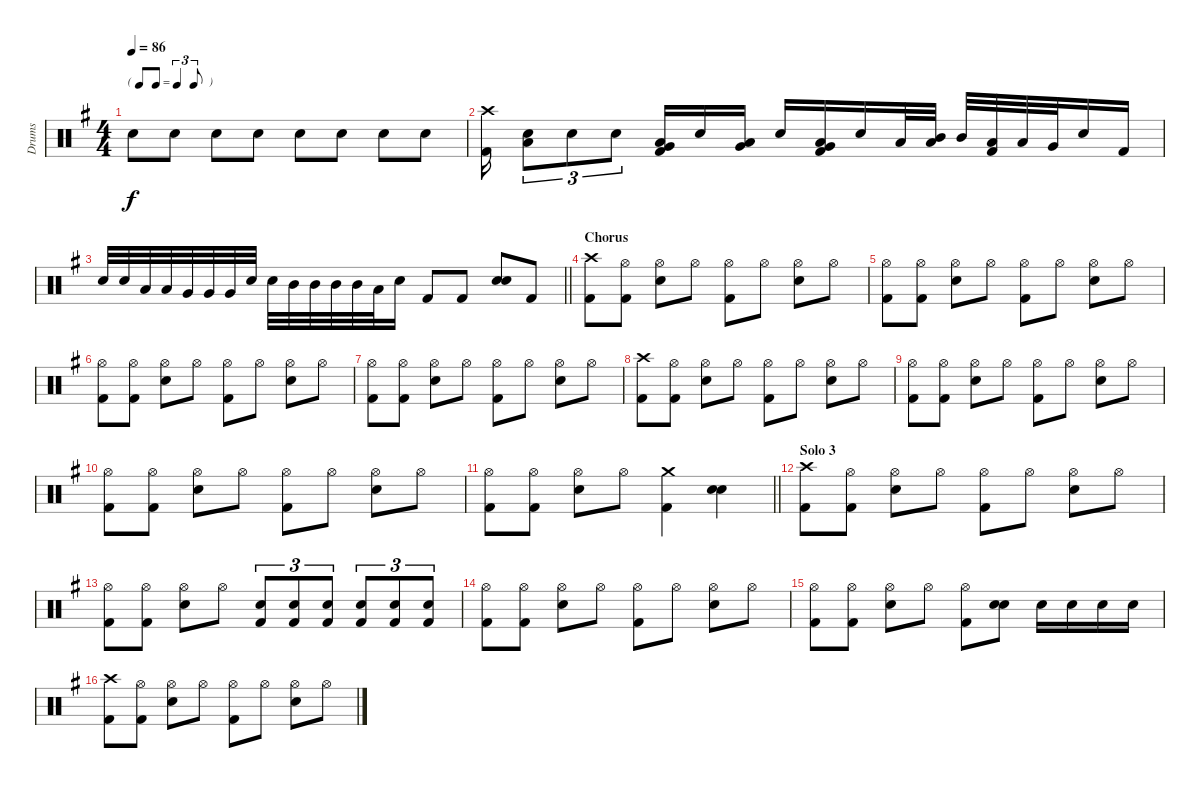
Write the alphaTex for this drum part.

\track ("Drums" "Drums") {instrument percussion}
\staff {score}
\articulation defaults
\ts (4 4)
\tf triplet8th
\tempo 86
\clef neutral
\ks g "Snare (hit) 2".8{dy f} "Snare (hit) 2".8 "Snare (hit) 2".8 "Snare (hit) 2".8 "Snare (hit) 2".8 "Snare (hit) 2".8 "Snare (hit) 2".8 "Snare (hit) 2".8
|
("Crash high (hit)" "Kick (hit) 2").16 ("Snare (hit) 2" "Low Tom (hit)").8{tu (3 2)} "Snare (hit) 2".8{tu (3 2)} "Snare (hit) 2".8{tu (3 2)} ("Kick (hit) 2" "Low Tom (hit)" "Very Low Tom (hit)").16 "Snare (hit) 2".16 ("Low Tom (hit)" "Very Low Tom (hit)").16 "Snare (hit) 2".16 ("Kick (hit) 2" "Low Tom (hit)" "Very Low Tom (hit)").16 "Snare (hit) 2".16 "Low Tom (hit)".32 ("Mid Tom (hit)" "Low Tom (hit)").32 "Mid Tom (hit)".32 ("Kick (hit) 2" "Low Tom (hit)").32 "Low Tom (hit)".32 "Very Low Tom (hit)".32 "Snare (hit) 2".16 "Kick (hit) 2".16 |
\barLineRight lightlight "Snare (hit) 2".32 "Snare (hit) 2".32 "Low Tom (hit)".32 "Low Tom (hit)".32 "Very Low Tom (hit)".32 "Very Low Tom (hit)".32 "Very Low Tom (hit)".32 "Snare (hit) 2".32 "Snare (hit) 2".32 "Mid Tom (hit)".32 "Mid Tom (hit)".32 "Mid Tom (hit)".32 "Mid Tom (hit)".32 "Low Tom (hit)".32 "Snare (hit) 2".16 "Kick (hit) 2".8 "Kick (hit) 2".8
("Snare (hit) 2" "Snare (hit) 2").8 "Kick (hit) 2".8 |
\section ("" "Chorus")
("Crash high (hit)" "Kick (hit) 2").8 ("Hi-Hat (open)" "Kick (hit) 2").8 ("Hi-Hat (open)" "Snare (hit) 2").8 "Hi-Hat (open)".8 ("Hi-Hat (open)" "Kick (hit) 2").8 "Hi-Hat (open)".8 ("Hi-Hat (open)" "Snare (hit) 2").8 "Hi-Hat (open)".8 |
("Hi-Hat (open)" "Kick (hit) 2").8 ("Hi-Hat (open)" "Kick (hit) 2").8 ("Hi-Hat (open)" "Snare (hit) 2").8 "Hi-Hat (open)".8 ("Hi-Hat (open)" "Kick (hit) 2").8 "Hi-Hat (open)".8 ("Hi-Hat (open)" "Snare (hit) 2").8 "Hi-Hat (open)".8 |
("Hi-Hat (open)" "Kick (hit) 2").8 ("Hi-Hat (open)" "Kick (hit) 2").8 ("Hi-Hat (open)" "Snare (hit) 2").8 "Hi-Hat (open)".8 ("Hi-Hat (open)" "Kick (hit) 2").8 "Hi-Hat (open)".8 ("Hi-Hat (open)" "Snare (hit) 2").8 "Hi-Hat (open)".8 |
("Hi-Hat (open)" "Kick (hit) 2").8 ("Hi-Hat (open)" "Kick (hit) 2").8 ("Hi-Hat (open)" "Snare (hit) 2").8 "Hi-Hat (open)".8 ("Hi-Hat (open)" "Kick (hit) 2").8 "Hi-Hat (open)".8 ("Hi-Hat (open)" "Snare (hit) 2").8 "Hi-Hat (open)".8 |
("Crash high (hit)" "Kick (hit) 2").8 ("Hi-Hat (open)" "Kick (hit) 2").8 ("Hi-Hat (open)" "Snare (hit) 2").8 "Hi-Hat (open)".8 ("Hi-Hat (open)" "Kick (hit) 2").8 "Hi-Hat (open)".8 ("Hi-Hat (open)" "Snare (hit) 2").8 "Hi-Hat (open)".8 |
("Hi-Hat (open)" "Kick (hit) 2").8 ("Hi-Hat (open)" "Kick (hit) 2").8 ("Hi-Hat (open)" "Snare (hit) 2").8 "Hi-Hat (open)".8 ("Hi-Hat (open)" "Kick (hit) 2").8 "Hi-Hat (open)".8 ("Hi-Hat (open)" "Snare (hit) 2").8 "Hi-Hat (open)".8 |
("Hi-Hat (open)" "Kick (hit) 2").8 ("Hi-Hat (open)" "Kick (hit) 2").8 ("Hi-Hat (open)" "Snare (hit) 2").8 "Hi-Hat (open)".8 ("Hi-Hat (open)" "Kick (hit) 2").8 "Hi-Hat (open)".8 ("Hi-Hat (open)" "Snare (hit) 2").8 "Hi-Hat (open)".8 |
\barLineRight lightlight
("Hi-Hat (open)" "Kick (hit) 2").8 ("Hi-Hat (open)" "Kick (hit) 2").8 ("Hi-Hat (open)" "Snare (hit) 2").8 "Hi-Hat (open)".8 ("Crash medium (hit)" "Kick (hit) 2").4 ("Snare (hit) 2" "Snare (hit) 2").4 |
\section ("" "Solo 3")
("Crash high (hit)" "Kick (hit) 2").8 ("Hi-Hat (open)" "Kick (hit) 2").8 ("Hi-Hat (open)" "Snare (hit) 2").8 "Hi-Hat (open)".8 ("Hi-Hat (open)" "Kick (hit) 2").8 "Hi-Hat (open)".8 ("Hi-Hat (open)" "Snare (hit) 2").8 "Hi-Hat (open)".8 |
("Hi-Hat (open)" "Kick (hit) 2").8 ("Hi-Hat (open)" "Kick (hit) 2").8 ("Hi-Hat (open)" "Snare (hit) 2").8 "Hi-Hat (open)".8 ("Snare (hit) 2" "Kick (hit) 2").8{tu (3 2)} ("Snare (hit) 2" "Kick (hit) 2").8{tu (3 2)} ("Snare (hit) 2" "Kick (hit) 2").8{tu (3 2)} ("Snare (hit) 2" "Kick (hit) 2").8{tu (3 2)} ("Snare (hit) 2" "Kick (hit) 2").8{tu (3 2)} ("Snare (hit) 2" "Kick (hit) 2").8{tu (3 2)} |
("Hi-Hat (open)" "Kick (hit) 2").8 ("Hi-Hat (open)" "Kick (hit) 2").8 ("Hi-Hat (open)" "Snare (hit) 2").8 "Hi-Hat (open)".8 ("Hi-Hat (open)" "Kick (hit) 2").8 "Hi-Hat (open)".8 ("Hi-Hat (open)" "Snare (hit) 2").8 "Hi-Hat (open)".8 |
("Hi-Hat (open)" "Kick (hit) 2").8 ("Hi-Hat (open)" "Kick (hit) 2").8 ("Hi-Hat (open)" "Snare (hit) 2").8 "Hi-Hat (open)".8 ("Hi-Hat (open)" "Kick (hit) 2").8 ("Snare (hit) 2" "Snare (hit) 2").8 "Snare (hit) 2".16 "Snare (hit) 2".16 "Snare (hit) 2".16 "Snare (hit) 2".16 |
("Crash high (hit)" "Kick (hit) 2").8 ("Hi-Hat (open)" "Kick (hit) 2").8 ("Hi-Hat (open)" "Snare (hit) 2").8 "Hi-Hat (open)".8 ("Hi-Hat (open)" "Kick (hit) 2").8 "Hi-Hat (open)".8 ("Hi-Hat (open)" "Snare (hit) 2").8 "Hi-Hat (open)".8
